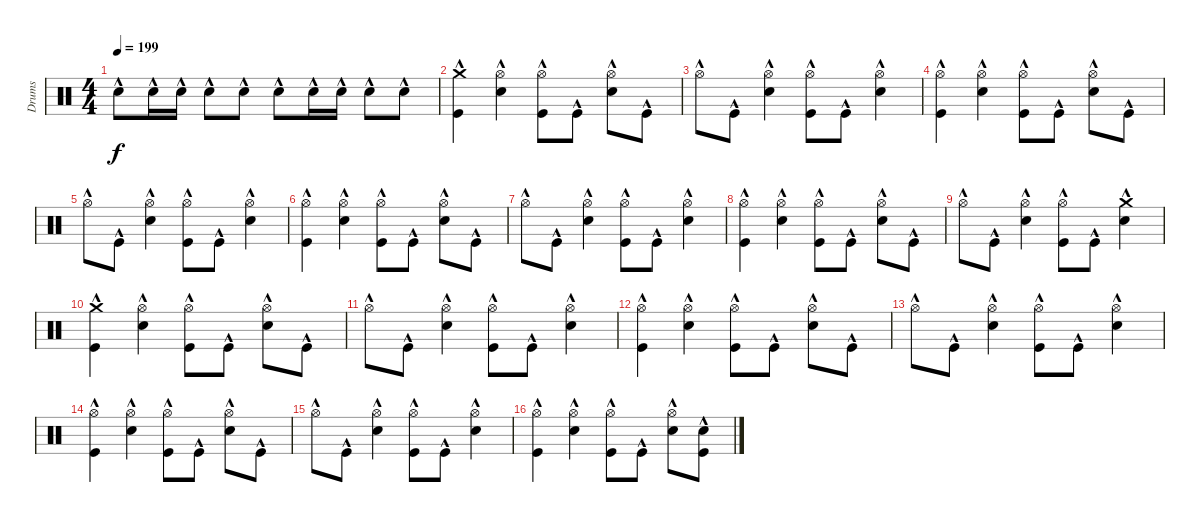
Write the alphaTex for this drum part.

\track ("Drumkit" "Drums") {instrument percussion}
\staff {score}
\articulation defaults
\ts (4 4)
\tempo 199
\clef neutral
\ks c "Snare (hit) 2"{hac}.8{dy f} "Snare (hit) 2"{hac}.16 "Snare (hit) 2"{hac}.16 "Snare (hit) 2"{hac}.8 "Snare (hit) 2"{hac}.8 "Snare (hit) 2"{hac}.8 "Snare (hit) 2"{hac}.16 "Snare (hit) 2"{hac}.16 "Snare (hit) 2"{hac}.8 "Snare (hit) 2"{hac}.8
|
("Kick (hit)"{hac} "Crash medium (hit)"{hac}).4 ("Hi-Hat (open)"{hac} "Snare (hit) 2"{hac}).4 ("Hi-Hat (open)"{hac} "Kick (hit)"{hac}).8 "Kick (hit)"{hac}.8 ("Hi-Hat (open)"{hac} "Snare (hit) 2"{hac}).8 "Kick (hit)"{hac}.8 |
"Hi-Hat (open)"{hac}.8 "Kick (hit)"{hac}.8 ("Hi-Hat (open)"{hac} "Snare (hit) 2"{hac}).4 ("Hi-Hat (open)"{hac} "Kick (hit)"{hac}).8 "Kick (hit)"{hac}.8 ("Hi-Hat (open)"{hac} "Snare (hit) 2"{hac}).4 |
("Kick (hit)"{hac} "Hi-Hat (open)"{hac}).4 ("Hi-Hat (open)"{hac} "Snare (hit) 2"{hac}).4 ("Hi-Hat (open)"{hac} "Kick (hit)"{hac}).8 "Kick (hit)"{hac}.8 ("Hi-Hat (open)"{hac} "Snare (hit) 2"{hac}).8 "Kick (hit)"{hac}.8 |
"Hi-Hat (open)"{hac}.8 "Kick (hit)"{hac}.8 ("Hi-Hat (open)"{hac} "Snare (hit) 2"{hac}).4 ("Hi-Hat (open)"{hac} "Kick (hit)"{hac}).8 "Kick (hit)"{hac}.8 ("Hi-Hat (open)"{hac} "Snare (hit) 2"{hac}).4 |
("Kick (hit)"{hac} "Hi-Hat (open)"{hac}).4 ("Hi-Hat (open)"{hac} "Snare (hit) 2"{hac}).4 ("Hi-Hat (open)"{hac} "Kick (hit)"{hac}).8 "Kick (hit)"{hac}.8 ("Hi-Hat (open)"{hac} "Snare (hit) 2"{hac}).8 "Kick (hit)"{hac}.8 |
"Hi-Hat (open)"{hac}.8 "Kick (hit)"{hac}.8 ("Hi-Hat (open)"{hac} "Snare (hit) 2"{hac}).4 ("Hi-Hat (open)"{hac} "Kick (hit)"{hac}).8 "Kick (hit)"{hac}.8 ("Hi-Hat (open)"{hac} "Snare (hit) 2"{hac}).4 |
("Kick (hit)"{hac} "Hi-Hat (open)"{hac}).4 ("Hi-Hat (open)"{hac} "Snare (hit) 2"{hac}).4 ("Hi-Hat (open)"{hac} "Kick (hit)"{hac}).8 "Kick (hit)"{hac}.8 ("Hi-Hat (open)"{hac} "Snare (hit) 2"{hac}).8 "Kick (hit)"{hac}.8 |
"Hi-Hat (open)"{hac}.8 "Kick (hit)"{hac}.8 ("Hi-Hat (open)"{hac} "Snare (hit) 2"{hac}).4 ("Hi-Hat (open)"{hac} "Kick (hit)"{hac}).8 "Kick (hit)"{hac}.8 ("Snare (hit) 2"{hac} "Crash medium (hit)"{hac}).4 |
("Kick (hit)"{hac} "Crash medium (hit)"{hac}).4 ("Hi-Hat (open)"{hac} "Snare (hit) 2"{hac}).4 ("Hi-Hat (open)"{hac} "Kick (hit)"{hac}).8 "Kick (hit)"{hac}.8 ("Hi-Hat (open)"{hac} "Snare (hit) 2"{hac}).8 "Kick (hit)"{hac}.8 |
"Hi-Hat (open)"{hac}.8 "Kick (hit)"{hac}.8 ("Hi-Hat (open)"{hac} "Snare (hit) 2"{hac}).4 ("Hi-Hat (open)"{hac} "Kick (hit)"{hac}).8 "Kick (hit)"{hac}.8 ("Hi-Hat (open)"{hac} "Snare (hit) 2"{hac}).4 |
("Kick (hit)"{hac} "Hi-Hat (open)"{hac}).4 ("Hi-Hat (open)"{hac} "Snare (hit) 2"{hac}).4 ("Hi-Hat (open)"{hac} "Kick (hit)"{hac}).8 "Kick (hit)"{hac}.8 ("Hi-Hat (open)"{hac} "Snare (hit) 2"{hac}).8 "Kick (hit)"{hac}.8 |
"Hi-Hat (open)"{hac}.8 "Kick (hit)"{hac}.8 ("Hi-Hat (open)"{hac} "Snare (hit) 2"{hac}).4 ("Hi-Hat (open)"{hac} "Kick (hit)"{hac}).8 "Kick (hit)"{hac}.8 ("Hi-Hat (open)"{hac} "Snare (hit) 2"{hac}).4 |
("Kick (hit)"{hac} "Hi-Hat (open)"{hac}).4 ("Hi-Hat (open)"{hac} "Snare (hit) 2"{hac}).4 ("Hi-Hat (open)"{hac} "Kick (hit)"{hac}).8 "Kick (hit)"{hac}.8 ("Hi-Hat (open)"{hac} "Snare (hit) 2"{hac}).8 "Kick (hit)"{hac}.8 |
"Hi-Hat (open)"{hac}.8 "Kick (hit)"{hac}.8 ("Hi-Hat (open)"{hac} "Snare (hit) 2"{hac}).4 ("Hi-Hat (open)"{hac} "Kick (hit)"{hac}).8 "Kick (hit)"{hac}.8 ("Hi-Hat (open)"{hac} "Snare (hit) 2"{hac}).4 |
("Kick (hit)"{hac} "Hi-Hat (open)"{hac}).4 ("Hi-Hat (open)"{hac} "Snare (hit) 2"{hac}).4 ("Hi-Hat (open)"{hac} "Kick (hit)"{hac}).8 "Kick (hit)"{hac}.8 ("Hi-Hat (open)"{hac} "Snare (hit) 2"{hac}).8 ("Snare (hit) 2"{hac} "Kick (hit)"{hac}).8
